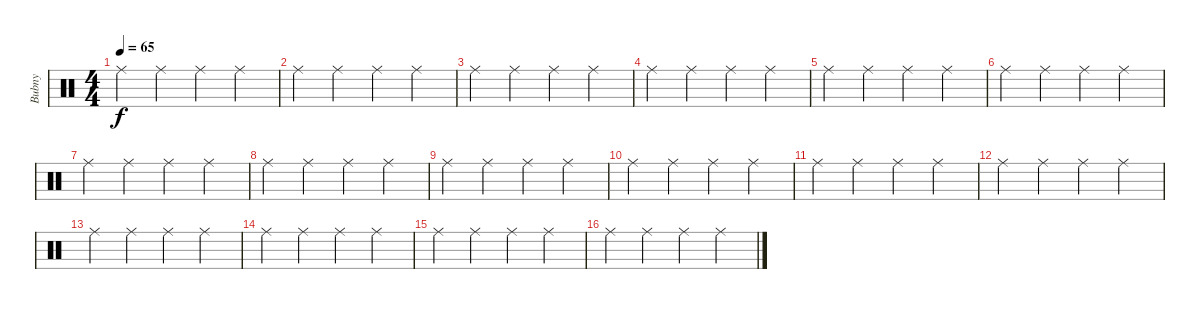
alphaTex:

\track ("Bubny" "Bubny") {instrument percussion}
\staff {score}
\articulation defaults
\ts (4 4)
\tempo 65
\clef neutral
\ks c "Ride (middle)".4{dy f} "Ride (middle)".4 "Ride (middle)".4 "Ride (middle)".4
|
"Ride (middle)".4 "Ride (middle)".4 "Ride (middle)".4 "Ride (middle)".4 |
"Ride (middle)".4 "Ride (middle)".4 "Ride (middle)".4 "Ride (middle)".4 |
"Ride (middle)".4 "Ride (middle)".4 "Ride (middle)".4 "Ride (middle)".4 |
"Ride (middle)".4 "Ride (middle)".4 "Ride (middle)".4 "Ride (middle)".4 |
"Ride (middle)".4 "Ride (middle)".4 "Ride (middle)".4 "Ride (middle)".4 |
"Ride (middle)".4 "Ride (middle)".4 "Ride (middle)".4 "Ride (middle)".4 |
"Ride (middle)".4 "Ride (middle)".4 "Ride (middle)".4 "Ride (middle)".4 |
"Ride (middle)".4 "Ride (middle)".4 "Ride (middle)".4 "Ride (middle)".4 |
"Ride (middle)".4 "Ride (middle)".4 "Ride (middle)".4 "Ride (middle)".4 |
"Ride (middle)".4 "Ride (middle)".4 "Ride (middle)".4 "Ride (middle)".4 |
"Ride (middle)".4 "Ride (middle)".4 "Ride (middle)".4 "Ride (middle)".4 |
"Ride (middle)".4 "Ride (middle)".4 "Ride (middle)".4 "Ride (middle)".4 |
"Ride (middle)".4 "Ride (middle)".4 "Ride (middle)".4 "Ride (middle)".4 |
"Ride (middle)".4 "Ride (middle)".4 "Ride (middle)".4 "Ride (middle)".4 |
"Ride (middle)".4 "Ride (middle)".4 "Ride (middle)".4 "Ride (middle)".4
